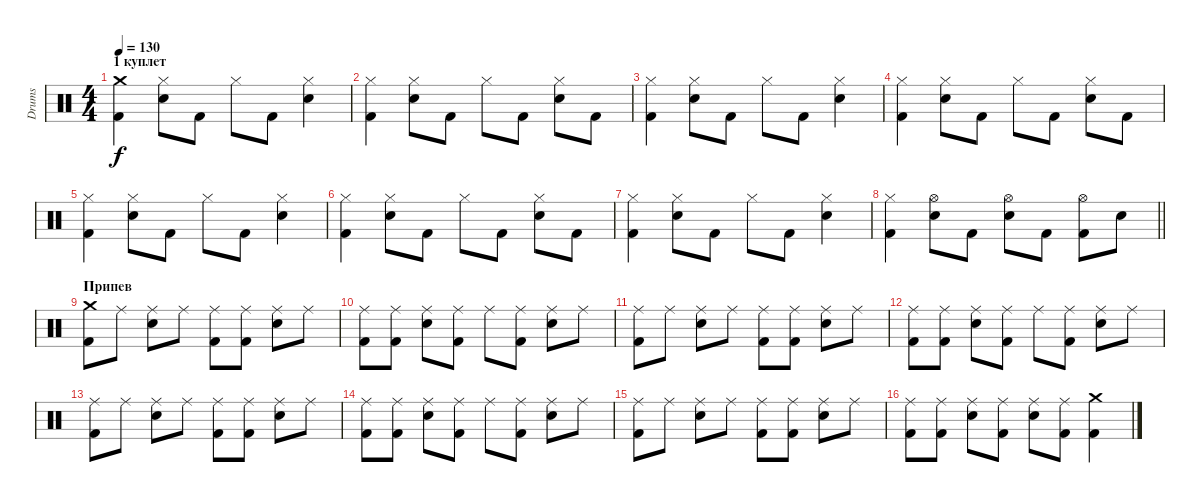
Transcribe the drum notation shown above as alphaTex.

\track ("Drums" "Drums") {instrument percussion}
\staff {score}
\articulation defaults
\ts (4 4)
\section ("" "1 куплет")
\tempo 130
\clef neutral
\ks c
("Crash medium (hit)" "Kick (hit) 2").4{dy f} ("Hi-Hat (closed)" "Snare (hit) 2").8 "Kick (hit) 2".8 "Hi-Hat (closed)".8 "Kick (hit) 2".8 ("Hi-Hat (closed)" "Snare (hit) 2").4 |
("Hi-Hat (closed)" "Kick (hit) 2").4 ("Hi-Hat (closed)" "Snare (hit) 2").8 "Kick (hit) 2".8 "Hi-Hat (closed)".8 "Kick (hit) 2".8 ("Hi-Hat (closed)" "Snare (hit) 2").8 "Kick (hit) 2".8 |
("Hi-Hat (closed)" "Kick (hit) 2").4 ("Hi-Hat (closed)" "Snare (hit) 2").8 "Kick (hit) 2".8 "Hi-Hat (closed)".8 "Kick (hit) 2".8 ("Hi-Hat (closed)" "Snare (hit) 2").4 |
("Hi-Hat (closed)" "Kick (hit) 2").4 ("Hi-Hat (closed)" "Snare (hit) 2").8 "Kick (hit) 2".8 "Hi-Hat (closed)".8 "Kick (hit) 2".8 ("Hi-Hat (closed)" "Snare (hit) 2").8 "Kick (hit) 2".8 |
("Hi-Hat (closed)" "Kick (hit) 2").4 ("Hi-Hat (closed)" "Snare (hit) 2").8 "Kick (hit) 2".8 "Hi-Hat (closed)".8 "Kick (hit) 2".8 ("Hi-Hat (closed)" "Snare (hit) 2").4 |
("Hi-Hat (closed)" "Kick (hit) 2").4 ("Hi-Hat (closed)" "Snare (hit) 2").8 "Kick (hit) 2".8 "Hi-Hat (closed)".8 "Kick (hit) 2".8 ("Hi-Hat (closed)" "Snare (hit) 2").8 "Kick (hit) 2".8 |
("Hi-Hat (closed)" "Kick (hit) 2").4 ("Hi-Hat (closed)" "Snare (hit) 2").8 "Kick (hit) 2".8 "Hi-Hat (closed)".8 "Kick (hit) 2".8 ("Hi-Hat (closed)" "Snare (hit) 2").4 |
\barLineRight lightlight
("Hi-Hat (closed)" "Kick (hit) 2").4 ("Hi-Hat (open)" "Snare (hit) 2").8 "Kick (hit) 2".8 ("Hi-Hat (open)" "Snare (hit) 2").8 "Kick (hit) 2".8 ("Hi-Hat (open)" "Kick (hit) 2").8 "Snare (hit) 2".8 |
\section ("" "Припев")
("Crash medium (hit)" "Kick (hit) 2").8 "Ride (middle)".8 ("Ride (middle)" "Snare (hit) 2").8 "Ride (middle)".8 ("Ride (middle)" "Kick (hit) 2").8 ("Ride (middle)" "Kick (hit) 2").8 ("Ride (middle)" "Snare (hit) 2").8 "Ride (middle)".8 |
("Ride (middle)" "Kick (hit) 2").8 ("Ride (middle)" "Kick (hit) 2").8 ("Ride (middle)" "Snare (hit) 2").8 ("Ride (middle)" "Kick (hit) 2").8 "Ride (middle)".8 ("Ride (middle)" "Kick (hit) 2").8 ("Ride (middle)" "Snare (hit) 2").8 "Ride (middle)".8 |
("Ride (middle)" "Kick (hit) 2").8 "Ride (middle)".8 ("Ride (middle)" "Snare (hit) 2").8 "Ride (middle)".8 ("Ride (middle)" "Kick (hit) 2").8 ("Ride (middle)" "Kick (hit) 2").8 ("Ride (middle)" "Snare (hit) 2").8 "Ride (middle)".8 |
("Ride (middle)" "Kick (hit) 2").8 ("Ride (middle)" "Kick (hit) 2").8 ("Ride (middle)" "Snare (hit) 2").8 ("Ride (middle)" "Kick (hit) 2").8 "Ride (middle)".8 ("Ride (middle)" "Kick (hit) 2").8 ("Ride (middle)" "Snare (hit) 2").8 "Ride (middle)".8 |
("Ride (middle)" "Kick (hit) 2").8 "Ride (middle)".8 ("Ride (middle)" "Snare (hit) 2").8 "Ride (middle)".8 ("Ride (middle)" "Kick (hit) 2").8 ("Ride (middle)" "Kick (hit) 2").8 ("Ride (middle)" "Snare (hit) 2").8 "Ride (middle)".8 |
("Ride (middle)" "Kick (hit) 2").8 ("Ride (middle)" "Kick (hit) 2").8 ("Ride (middle)" "Snare (hit) 2").8 ("Ride (middle)" "Kick (hit) 2").8 "Ride (middle)".8 ("Ride (middle)" "Kick (hit) 2").8 ("Ride (middle)" "Snare (hit) 2").8 "Ride (middle)".8 |
("Ride (middle)" "Kick (hit) 2").8 "Ride (middle)".8 ("Ride (middle)" "Snare (hit) 2").8 "Ride (middle)".8 ("Ride (middle)" "Kick (hit) 2").8 ("Ride (middle)" "Kick (hit) 2").8 ("Ride (middle)" "Snare (hit) 2").8 "Ride (middle)".8 |
("Ride (middle)" "Kick (hit) 2").8 ("Ride (middle)" "Kick (hit) 2").8 ("Ride (middle)" "Snare (hit) 2").8 ("Ride (middle)" "Kick (hit) 2").8 ("Ride (middle)" "Snare (hit) 2").8 ("Ride (middle)" "Kick (hit) 2").8 ("Crash medium (hit)" "Kick (hit) 2").4
